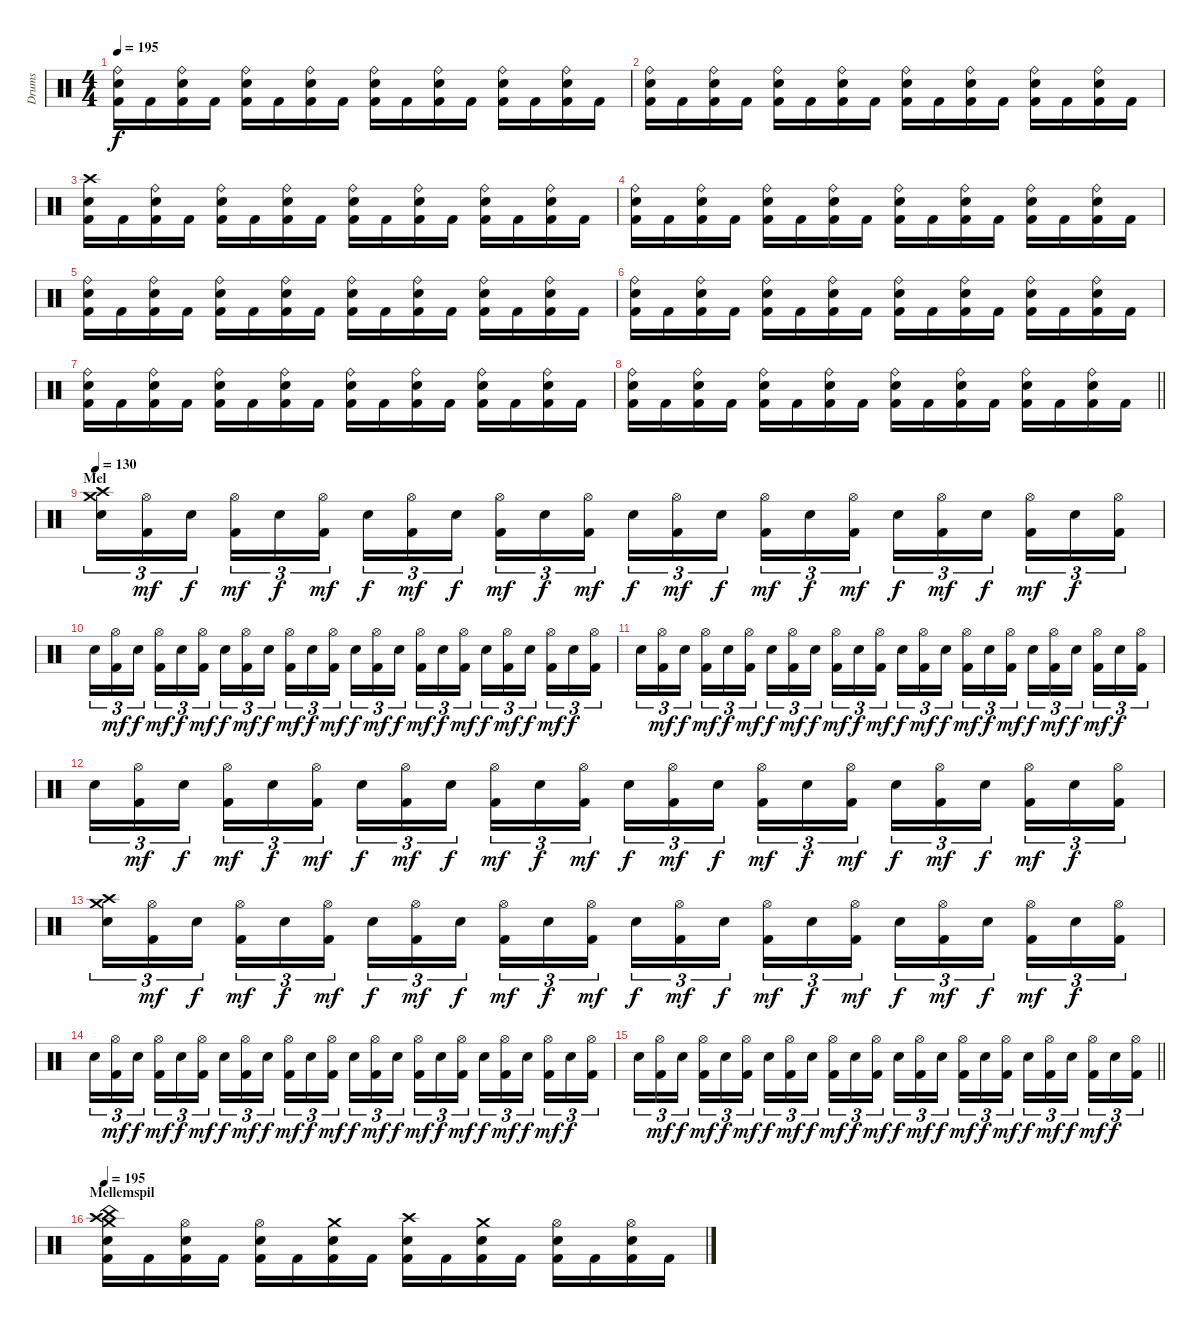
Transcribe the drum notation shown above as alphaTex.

\track ("Drums" "Drums") {instrument percussion}
\staff {score}
\articulation defaults
\ts (4 4)
\tempo 195
\clef neutral
\ks c
("Ride (bell)" "Electric Snare (hit)" "Kick (hit) 2").16{dy f} "Kick (hit) 2".16 ("Ride (bell)" "Electric Snare (hit)" "Kick (hit) 2").16 "Kick (hit) 2".16 ("Ride (bell)" "Electric Snare (hit)" "Kick (hit) 2").16 "Kick (hit) 2".16 ("Ride (bell)" "Electric Snare (hit)" "Kick (hit) 2").16 "Kick (hit) 2".16 ("Ride (bell)" "Electric Snare (hit)" "Kick (hit) 2").16 "Kick (hit) 2".16 ("Ride (bell)" "Electric Snare (hit)" "Kick (hit) 2").16 "Kick (hit) 2".16 ("Ride (bell)" "Electric Snare (hit)" "Kick (hit) 2").16 "Kick (hit) 2".16 ("Ride (bell)" "Electric Snare (hit)" "Kick (hit) 2").16 "Kick (hit) 2".16 |
("Ride (bell)" "Electric Snare (hit)" "Kick (hit) 2").16 "Kick (hit) 2".16 ("Ride (bell)" "Electric Snare (hit)" "Kick (hit) 2").16 "Kick (hit) 2".16 ("Ride (bell)" "Electric Snare (hit)" "Kick (hit) 2").16 "Kick (hit) 2".16 ("Ride (bell)" "Electric Snare (hit)" "Kick (hit) 2").16 "Kick (hit) 2".16 ("Ride (bell)" "Electric Snare (hit)" "Kick (hit) 2").16 "Kick (hit) 2".16 ("Ride (bell)" "Electric Snare (hit)" "Kick (hit) 2").16 "Kick (hit) 2".16 ("Ride (bell)" "Electric Snare (hit)" "Kick (hit) 2").16 "Kick (hit) 2".16 ("Ride (bell)" "Electric Snare (hit)" "Kick (hit) 2").16 "Kick (hit) 2".16 |
("Crash high (hit)" "Electric Snare (hit)" "Kick (hit) 2").16 "Kick (hit) 2".16 ("Ride (bell)" "Electric Snare (hit)" "Kick (hit) 2").16 "Kick (hit) 2".16 ("Ride (bell)" "Electric Snare (hit)" "Kick (hit) 2").16 "Kick (hit) 2".16 ("Ride (bell)" "Electric Snare (hit)" "Kick (hit) 2").16 "Kick (hit) 2".16 ("Ride (bell)" "Electric Snare (hit)" "Kick (hit) 2").16 "Kick (hit) 2".16 ("Ride (bell)" "Electric Snare (hit)" "Kick (hit) 2").16 "Kick (hit) 2".16 ("Ride (bell)" "Electric Snare (hit)" "Kick (hit) 2").16 "Kick (hit) 2".16 ("Ride (bell)" "Electric Snare (hit)" "Kick (hit) 2").16 "Kick (hit) 2".16 |
("Ride (bell)" "Electric Snare (hit)" "Kick (hit) 2").16 "Kick (hit) 2".16 ("Ride (bell)" "Electric Snare (hit)" "Kick (hit) 2").16 "Kick (hit) 2".16 ("Ride (bell)" "Electric Snare (hit)" "Kick (hit) 2").16 "Kick (hit) 2".16 ("Ride (bell)" "Electric Snare (hit)" "Kick (hit) 2").16 "Kick (hit) 2".16 ("Ride (bell)" "Electric Snare (hit)" "Kick (hit) 2").16 "Kick (hit) 2".16 ("Ride (bell)" "Electric Snare (hit)" "Kick (hit) 2").16 "Kick (hit) 2".16 ("Ride (bell)" "Electric Snare (hit)" "Kick (hit) 2").16 "Kick (hit) 2".16 ("Ride (bell)" "Electric Snare (hit)" "Kick (hit) 2").16 "Kick (hit) 2".16 |
("Ride (bell)" "Electric Snare (hit)" "Kick (hit) 2").16 "Kick (hit) 2".16 ("Ride (bell)" "Electric Snare (hit)" "Kick (hit) 2").16 "Kick (hit) 2".16 ("Ride (bell)" "Electric Snare (hit)" "Kick (hit) 2").16 "Kick (hit) 2".16 ("Ride (bell)" "Electric Snare (hit)" "Kick (hit) 2").16 "Kick (hit) 2".16 ("Ride (bell)" "Electric Snare (hit)" "Kick (hit) 2").16 "Kick (hit) 2".16 ("Ride (bell)" "Electric Snare (hit)" "Kick (hit) 2").16 "Kick (hit) 2".16 ("Ride (bell)" "Electric Snare (hit)" "Kick (hit) 2").16 "Kick (hit) 2".16 ("Ride (bell)" "Electric Snare (hit)" "Kick (hit) 2").16 "Kick (hit) 2".16 |
("Ride (bell)" "Electric Snare (hit)" "Kick (hit) 2").16 "Kick (hit) 2".16 ("Ride (bell)" "Electric Snare (hit)" "Kick (hit) 2").16 "Kick (hit) 2".16 ("Ride (bell)" "Electric Snare (hit)" "Kick (hit) 2").16 "Kick (hit) 2".16 ("Ride (bell)" "Electric Snare (hit)" "Kick (hit) 2").16 "Kick (hit) 2".16 ("Ride (bell)" "Electric Snare (hit)" "Kick (hit) 2").16 "Kick (hit) 2".16 ("Ride (bell)" "Electric Snare (hit)" "Kick (hit) 2").16 "Kick (hit) 2".16 ("Ride (bell)" "Electric Snare (hit)" "Kick (hit) 2").16 "Kick (hit) 2".16 ("Ride (bell)" "Electric Snare (hit)" "Kick (hit) 2").16 "Kick (hit) 2".16 |
("Ride (bell)" "Electric Snare (hit)" "Kick (hit) 2").16 "Kick (hit) 2".16 ("Ride (bell)" "Electric Snare (hit)" "Kick (hit) 2").16 "Kick (hit) 2".16 ("Ride (bell)" "Electric Snare (hit)" "Kick (hit) 2").16 "Kick (hit) 2".16 ("Ride (bell)" "Electric Snare (hit)" "Kick (hit) 2").16 "Kick (hit) 2".16 ("Ride (bell)" "Electric Snare (hit)" "Kick (hit) 2").16 "Kick (hit) 2".16 ("Ride (bell)" "Electric Snare (hit)" "Kick (hit) 2").16 "Kick (hit) 2".16 ("Ride (bell)" "Electric Snare (hit)" "Kick (hit) 2").16 "Kick (hit) 2".16 ("Ride (bell)" "Electric Snare (hit)" "Kick (hit) 2").16 "Kick (hit) 2".16 |
\barLineRight lightlight
("Ride (bell)" "Electric Snare (hit)" "Kick (hit) 2").16 "Kick (hit) 2".16 ("Ride (bell)" "Electric Snare (hit)" "Kick (hit) 2").16 "Kick (hit) 2".16 ("Ride (bell)" "Electric Snare (hit)" "Kick (hit) 2").16 "Kick (hit) 2".16 ("Ride (bell)" "Electric Snare (hit)" "Kick (hit) 2").16 "Kick (hit) 2".16 ("Ride (bell)" "Electric Snare (hit)" "Kick (hit) 2").16 "Kick (hit) 2".16 ("Ride (bell)" "Electric Snare (hit)" "Kick (hit) 2").16 "Kick (hit) 2".16 ("Ride (bell)" "Electric Snare (hit)" "Kick (hit) 2").16 "Kick (hit) 2".16 ("Ride (bell)" "Electric Snare (hit)" "Kick (hit) 2").16 "Kick (hit) 2".16 |
\section ("" "Mel")
\tempo 130
("Crash medium (hit)" "Crash high (hit)" "Snare (hit) 2").16{tu (3 2)} ("Hi-Hat (open)" "Kick (hit) 2").16{tu (3 2) dy mf} "Snare (hit) 2".16{tu (3 2) dy f beam splitsecondary} ("Hi-Hat (open)" "Kick (hit) 2").16{tu (3 2) dy mf} "Snare (hit) 2".16{tu (3 2) dy f} ("Hi-Hat (open)" "Kick (hit) 2").16{tu (3 2) dy mf} "Snare (hit) 2".16{tu (3 2) dy f} ("Hi-Hat (open)" "Kick (hit) 2").16{tu (3 2) dy mf} "Snare (hit) 2".16{tu (3 2) dy f beam splitsecondary} ("Hi-Hat (open)" "Kick (hit) 2").16{tu (3 2) dy mf} "Snare (hit) 2".16{tu (3 2) dy f} ("Hi-Hat (open)" "Kick (hit) 2").16{tu (3 2) dy mf} "Snare (hit) 2".16{tu (3 2) dy f} ("Hi-Hat (open)" "Kick (hit) 2").16{tu (3 2) dy mf} "Snare (hit) 2".16{tu (3 2) dy f beam splitsecondary} ("Hi-Hat (open)" "Kick (hit) 2").16{tu (3 2) dy mf} "Snare (hit) 2".16{tu (3 2) dy f} ("Hi-Hat (open)" "Kick (hit) 2").16{tu (3 2) dy mf} "Snare (hit) 2".16{tu (3 2) dy f} ("Hi-Hat (open)" "Kick (hit) 2").16{tu (3 2) dy mf} "Snare (hit) 2".16{tu (3 2) dy f beam splitsecondary} ("Hi-Hat (open)" "Kick (hit) 2").16{tu (3 2) dy mf} "Snare (hit) 2".16{tu (3 2) dy f} ("Hi-Hat (open)" "Kick (hit) 2").16{tu (3 2)} |
"Snare (hit) 2".16{tu (3 2)} ("Hi-Hat (open)" "Kick (hit) 2").16{tu (3 2) dy mf} "Snare (hit) 2".16{tu (3 2) dy f beam splitsecondary} ("Hi-Hat (open)" "Kick (hit) 2").16{tu (3 2) dy mf} "Snare (hit) 2".16{tu (3 2) dy f} ("Hi-Hat (open)" "Kick (hit) 2").16{tu (3 2) dy mf} "Snare (hit) 2".16{tu (3 2) dy f} ("Hi-Hat (open)" "Kick (hit) 2").16{tu (3 2) dy mf} "Snare (hit) 2".16{tu (3 2) dy f beam splitsecondary} ("Hi-Hat (open)" "Kick (hit) 2").16{tu (3 2) dy mf} "Snare (hit) 2".16{tu (3 2) dy f} ("Hi-Hat (open)" "Kick (hit) 2").16{tu (3 2) dy mf} "Snare (hit) 2".16{tu (3 2) dy f} ("Hi-Hat (open)" "Kick (hit) 2").16{tu (3 2) dy mf} "Snare (hit) 2".16{tu (3 2) dy f beam splitsecondary} ("Hi-Hat (open)" "Kick (hit) 2").16{tu (3 2) dy mf} "Snare (hit) 2".16{tu (3 2) dy f} ("Hi-Hat (open)" "Kick (hit) 2").16{tu (3 2) dy mf} "Snare (hit) 2".16{tu (3 2) dy f} ("Hi-Hat (open)" "Kick (hit) 2").16{tu (3 2) dy mf} "Snare (hit) 2".16{tu (3 2) dy f beam splitsecondary} ("Hi-Hat (open)" "Kick (hit) 2").16{tu (3 2) dy mf} "Snare (hit) 2".16{tu (3 2) dy f} ("Hi-Hat (open)" "Kick (hit) 2").16{tu (3 2)} |
"Snare (hit) 2".16{tu (3 2)} ("Hi-Hat (open)" "Kick (hit) 2").16{tu (3 2) dy mf} "Snare (hit) 2".16{tu (3 2) dy f beam splitsecondary} ("Hi-Hat (open)" "Kick (hit) 2").16{tu (3 2) dy mf} "Snare (hit) 2".16{tu (3 2) dy f} ("Hi-Hat (open)" "Kick (hit) 2").16{tu (3 2) dy mf} "Snare (hit) 2".16{tu (3 2) dy f} ("Hi-Hat (open)" "Kick (hit) 2").16{tu (3 2) dy mf} "Snare (hit) 2".16{tu (3 2) dy f beam splitsecondary} ("Hi-Hat (open)" "Kick (hit) 2").16{tu (3 2) dy mf} "Snare (hit) 2".16{tu (3 2) dy f} ("Hi-Hat (open)" "Kick (hit) 2").16{tu (3 2) dy mf} "Snare (hit) 2".16{tu (3 2) dy f} ("Hi-Hat (open)" "Kick (hit) 2").16{tu (3 2) dy mf} "Snare (hit) 2".16{tu (3 2) dy f beam splitsecondary} ("Hi-Hat (open)" "Kick (hit) 2").16{tu (3 2) dy mf} "Snare (hit) 2".16{tu (3 2) dy f} ("Hi-Hat (open)" "Kick (hit) 2").16{tu (3 2) dy mf} "Snare (hit) 2".16{tu (3 2) dy f} ("Hi-Hat (open)" "Kick (hit) 2").16{tu (3 2) dy mf} "Snare (hit) 2".16{tu (3 2) dy f beam splitsecondary} ("Hi-Hat (open)" "Kick (hit) 2").16{tu (3 2) dy mf} "Snare (hit) 2".16{tu (3 2) dy f} ("Hi-Hat (open)" "Kick (hit) 2").16{tu (3 2)} |
"Snare (hit) 2".16{tu (3 2)} ("Hi-Hat (open)" "Kick (hit) 2").16{tu (3 2) dy mf} "Snare (hit) 2".16{tu (3 2) dy f beam splitsecondary} ("Hi-Hat (open)" "Kick (hit) 2").16{tu (3 2) dy mf} "Snare (hit) 2".16{tu (3 2) dy f} ("Hi-Hat (open)" "Kick (hit) 2").16{tu (3 2) dy mf} "Snare (hit) 2".16{tu (3 2) dy f} ("Hi-Hat (open)" "Kick (hit) 2").16{tu (3 2) dy mf} "Snare (hit) 2".16{tu (3 2) dy f beam splitsecondary} ("Hi-Hat (open)" "Kick (hit) 2").16{tu (3 2) dy mf} "Snare (hit) 2".16{tu (3 2) dy f} ("Hi-Hat (open)" "Kick (hit) 2").16{tu (3 2) dy mf} "Snare (hit) 2".16{tu (3 2) dy f} ("Hi-Hat (open)" "Kick (hit) 2").16{tu (3 2) dy mf} "Snare (hit) 2".16{tu (3 2) dy f beam splitsecondary} ("Hi-Hat (open)" "Kick (hit) 2").16{tu (3 2) dy mf} "Snare (hit) 2".16{tu (3 2) dy f} ("Hi-Hat (open)" "Kick (hit) 2").16{tu (3 2) dy mf} "Snare (hit) 2".16{tu (3 2) dy f} ("Hi-Hat (open)" "Kick (hit) 2").16{tu (3 2) dy mf} "Snare (hit) 2".16{tu (3 2) dy f beam splitsecondary} ("Hi-Hat (open)" "Kick (hit) 2").16{tu (3 2) dy mf} "Snare (hit) 2".16{tu (3 2) dy f} ("Hi-Hat (open)" "Kick (hit) 2").16{tu (3 2)} |
("Crash medium (hit)" "Crash high (hit)" "Snare (hit) 2").16{tu (3 2)} ("Hi-Hat (open)" "Kick (hit) 2").16{tu (3 2) dy mf} "Snare (hit) 2".16{tu (3 2) dy f beam splitsecondary} ("Hi-Hat (open)" "Kick (hit) 2").16{tu (3 2) dy mf} "Snare (hit) 2".16{tu (3 2) dy f} ("Hi-Hat (open)" "Kick (hit) 2").16{tu (3 2) dy mf} "Snare (hit) 2".16{tu (3 2) dy f} ("Hi-Hat (open)" "Kick (hit) 2").16{tu (3 2) dy mf} "Snare (hit) 2".16{tu (3 2) dy f beam splitsecondary} ("Hi-Hat (open)" "Kick (hit) 2").16{tu (3 2) dy mf} "Snare (hit) 2".16{tu (3 2) dy f} ("Hi-Hat (open)" "Kick (hit) 2").16{tu (3 2) dy mf} "Snare (hit) 2".16{tu (3 2) dy f} ("Hi-Hat (open)" "Kick (hit) 2").16{tu (3 2) dy mf} "Snare (hit) 2".16{tu (3 2) dy f beam splitsecondary} ("Hi-Hat (open)" "Kick (hit) 2").16{tu (3 2) dy mf} "Snare (hit) 2".16{tu (3 2) dy f} ("Hi-Hat (open)" "Kick (hit) 2").16{tu (3 2) dy mf} "Snare (hit) 2".16{tu (3 2) dy f} ("Hi-Hat (open)" "Kick (hit) 2").16{tu (3 2) dy mf} "Snare (hit) 2".16{tu (3 2) dy f beam splitsecondary} ("Hi-Hat (open)" "Kick (hit) 2").16{tu (3 2) dy mf} "Snare (hit) 2".16{tu (3 2) dy f} ("Hi-Hat (open)" "Kick (hit) 2").16{tu (3 2)} |
"Snare (hit) 2".16{tu (3 2)} ("Hi-Hat (open)" "Kick (hit) 2").16{tu (3 2) dy mf} "Snare (hit) 2".16{tu (3 2) dy f beam splitsecondary} ("Hi-Hat (open)" "Kick (hit) 2").16{tu (3 2) dy mf} "Snare (hit) 2".16{tu (3 2) dy f} ("Hi-Hat (open)" "Kick (hit) 2").16{tu (3 2) dy mf} "Snare (hit) 2".16{tu (3 2) dy f} ("Hi-Hat (open)" "Kick (hit) 2").16{tu (3 2) dy mf} "Snare (hit) 2".16{tu (3 2) dy f beam splitsecondary} ("Hi-Hat (open)" "Kick (hit) 2").16{tu (3 2) dy mf} "Snare (hit) 2".16{tu (3 2) dy f} ("Hi-Hat (open)" "Kick (hit) 2").16{tu (3 2) dy mf} "Snare (hit) 2".16{tu (3 2) dy f} ("Hi-Hat (open)" "Kick (hit) 2").16{tu (3 2) dy mf} "Snare (hit) 2".16{tu (3 2) dy f beam splitsecondary} ("Hi-Hat (open)" "Kick (hit) 2").16{tu (3 2) dy mf} "Snare (hit) 2".16{tu (3 2) dy f} ("Hi-Hat (open)" "Kick (hit) 2").16{tu (3 2) dy mf} "Snare (hit) 2".16{tu (3 2) dy f} ("Hi-Hat (open)" "Kick (hit) 2").16{tu (3 2) dy mf} "Snare (hit) 2".16{tu (3 2) dy f beam splitsecondary} ("Hi-Hat (open)" "Kick (hit) 2").16{tu (3 2) dy mf} "Snare (hit) 2".16{tu (3 2) dy f} ("Hi-Hat (open)" "Kick (hit) 2").16{tu (3 2)} |
\barLineRight lightlight "Snare (hit) 2".16{tu (3 2)}
("Hi-Hat (open)" "Kick (hit) 2").16{tu (3 2) dy mf} "Snare (hit) 2".16{tu (3 2) dy f beam splitsecondary} ("Hi-Hat (open)" "Kick (hit) 2").16{tu (3 2) dy mf} "Snare (hit) 2".16{tu (3 2) dy f} ("Hi-Hat (open)" "Kick (hit) 2").16{tu (3 2) dy mf} "Snare (hit) 2".16{tu (3 2) dy f} ("Hi-Hat (open)" "Kick (hit) 2").16{tu (3 2) dy mf} "Snare (hit) 2".16{tu (3 2) dy f beam splitsecondary} ("Hi-Hat (open)" "Kick (hit) 2").16{tu (3 2) dy mf} "Snare (hit) 2".16{tu (3 2) dy f} ("Hi-Hat (open)" "Kick (hit) 2").16{tu (3 2) dy mf} "Snare (hit) 2".16{tu (3 2) dy f} ("Hi-Hat (open)" "Kick (hit) 2").16{tu (3 2) dy mf} "Snare (hit) 2".16{tu (3 2) dy f beam splitsecondary} ("Hi-Hat (open)" "Kick (hit) 2").16{tu (3 2) dy mf} "Snare (hit) 2".16{tu (3 2) dy f} ("Hi-Hat (open)" "Kick (hit) 2").16{tu (3 2) dy mf} "Snare (hit) 2".16{tu (3 2) dy f} ("Hi-Hat (open)" "Kick (hit) 2").16{tu (3 2) dy mf} "Snare (hit) 2".16{tu (3 2) dy f beam splitsecondary} ("Hi-Hat (open)" "Kick (hit) 2").16{tu (3 2) dy mf} "Snare (hit) 2".16{tu (3 2) dy f} ("Hi-Hat (open)" "Kick (hit) 2").16{tu (3 2)} |
\section ("" "Mellemspil")
\tempo 195
("Crash medium (hit)" "Crash high (hit)" "China (hit)" "Electric Snare (hit)" "Kick (hit) 2").16 "Kick (hit) 2".16 ("Hi-Hat (open)" "Electric Snare (hit)" "Kick (hit) 2").16 "Kick (hit) 2".16 ("Hi-Hat (open)" "Electric Snare (hit)" "Kick (hit) 2").16 "Kick (hit) 2".16 ("Crash medium (hit)" "Electric Snare (hit)" "Kick (hit) 2").16 "Kick (hit) 2".16 ("Crash high (hit)" "Electric Snare (hit)" "Kick (hit) 2").16 "Kick (hit) 2".16 ("Crash medium (hit)" "Electric Snare (hit)" "Kick (hit) 2").16 "Kick (hit) 2".16 ("Hi-Hat (open)" "Electric Snare (hit)" "Kick (hit) 2").16 "Kick (hit) 2".16 ("Hi-Hat (open)" "Electric Snare (hit)" "Kick (hit) 2").16 "Kick (hit) 2".16
